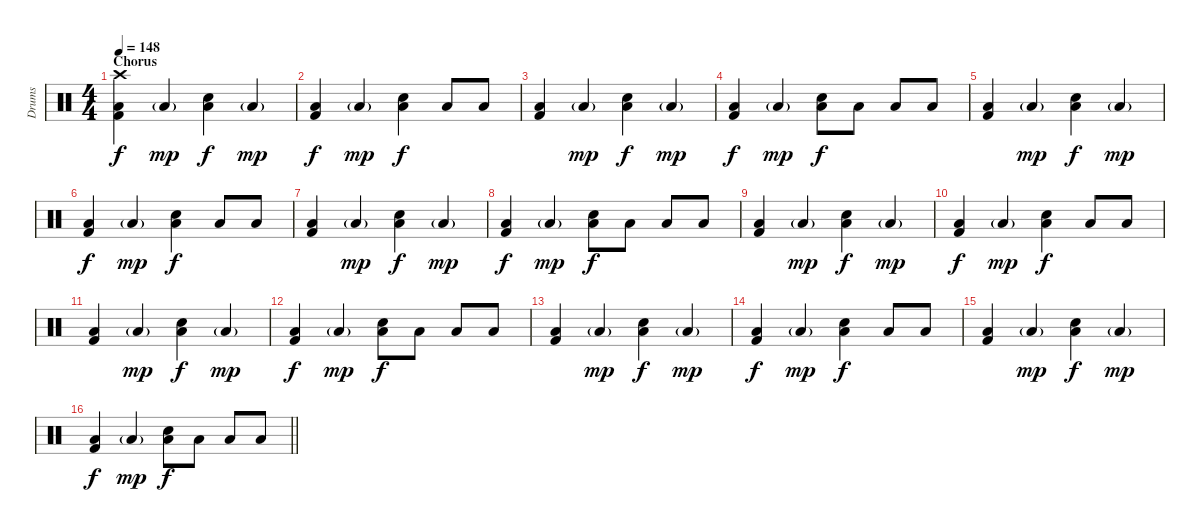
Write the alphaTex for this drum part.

\track ("Drums" "Drums") {instrument percussion}
\staff {score}
\articulation defaults
\ts (4 4)
\section ("" "Chorus")
\tempo 148
\clef neutral
\ks c
("Kick (hit) 2" "Low Floor Tom (hit)" "Crash high (hit)").4{dy f} "Low Floor Tom (hit)"{g}.4{dy mp} ("Electric Snare (hit)" "Low Floor Tom (hit)").4{dy f} "Low Floor Tom (hit)"{g}.4{dy mp} |
("Kick (hit) 2" "Low Floor Tom (hit)").4{dy f} "Low Floor Tom (hit)"{g}.4{dy mp} ("Electric Snare (hit)" "Low Floor Tom (hit)").4{dy f} "Low Floor Tom (hit)".8 "Low Floor Tom (hit)".8 |
("Kick (hit) 2" "Low Floor Tom (hit)").4 "Low Floor Tom (hit)"{g}.4{dy mp} ("Electric Snare (hit)" "Low Floor Tom (hit)").4{dy f} "Low Floor Tom (hit)"{g}.4{dy mp} |
("Kick (hit) 2" "Low Floor Tom (hit)").4{dy f} "Low Floor Tom (hit)"{g}.4{dy mp} ("Electric Snare (hit)" "Low Floor Tom (hit)").8{dy f} "Low Floor Tom (hit)".8 "Low Floor Tom (hit)".8 "Low Floor Tom (hit)".8 |
("Kick (hit) 2" "Low Floor Tom (hit)").4 "Low Floor Tom (hit)"{g}.4{dy mp} ("Electric Snare (hit)" "Low Floor Tom (hit)").4{dy f} "Low Floor Tom (hit)"{g}.4{dy mp} |
("Kick (hit) 2" "Low Floor Tom (hit)").4{dy f} "Low Floor Tom (hit)"{g}.4{dy mp} ("Electric Snare (hit)" "Low Floor Tom (hit)").4{dy f} "Low Floor Tom (hit)".8 "Low Floor Tom (hit)".8 |
("Kick (hit) 2" "Low Floor Tom (hit)").4 "Low Floor Tom (hit)"{g}.4{dy mp} ("Electric Snare (hit)" "Low Floor Tom (hit)").4{dy f} "Low Floor Tom (hit)"{g}.4{dy mp} |
("Kick (hit) 2" "Low Floor Tom (hit)").4{dy f} "Low Floor Tom (hit)"{g}.4{dy mp} ("Electric Snare (hit)" "Low Floor Tom (hit)").8{dy f} "Low Floor Tom (hit)".8 "Low Floor Tom (hit)".8 "Low Floor Tom (hit)".8 |
("Kick (hit) 2" "Low Floor Tom (hit)").4 "Low Floor Tom (hit)"{g}.4{dy mp} ("Electric Snare (hit)" "Low Floor Tom (hit)").4{dy f} "Low Floor Tom (hit)"{g}.4{dy mp} |
("Kick (hit) 2" "Low Floor Tom (hit)").4{dy f} "Low Floor Tom (hit)"{g}.4{dy mp} ("Electric Snare (hit)" "Low Floor Tom (hit)").4{dy f} "Low Floor Tom (hit)".8 "Low Floor Tom (hit)".8 |
("Kick (hit) 2" "Low Floor Tom (hit)").4 "Low Floor Tom (hit)"{g}.4{dy mp} ("Electric Snare (hit)" "Low Floor Tom (hit)").4{dy f} "Low Floor Tom (hit)"{g}.4{dy mp} |
("Kick (hit) 2" "Low Floor Tom (hit)").4{dy f} "Low Floor Tom (hit)"{g}.4{dy mp} ("Electric Snare (hit)" "Low Floor Tom (hit)").8{dy f} "Low Floor Tom (hit)".8 "Low Floor Tom (hit)".8 "Low Floor Tom (hit)".8 |
("Kick (hit) 2" "Low Floor Tom (hit)").4 "Low Floor Tom (hit)"{g}.4{dy mp} ("Electric Snare (hit)" "Low Floor Tom (hit)").4{dy f} "Low Floor Tom (hit)"{g}.4{dy mp} |
("Kick (hit) 2" "Low Floor Tom (hit)").4{dy f} "Low Floor Tom (hit)"{g}.4{dy mp} ("Electric Snare (hit)" "Low Floor Tom (hit)").4{dy f} "Low Floor Tom (hit)".8 "Low Floor Tom (hit)".8 |
("Kick (hit) 2" "Low Floor Tom (hit)").4 "Low Floor Tom (hit)"{g}.4{dy mp} ("Electric Snare (hit)" "Low Floor Tom (hit)").4{dy f} "Low Floor Tom (hit)"{g}.4{dy mp} |
\barLineRight lightlight
("Kick (hit) 2" "Low Floor Tom (hit)").4{dy f} "Low Floor Tom (hit)"{g}.4{dy mp} ("Electric Snare (hit)" "Low Floor Tom (hit)").8{dy f} "Low Floor Tom (hit)".8 "Low Floor Tom (hit)".8 "Low Floor Tom (hit)".8
